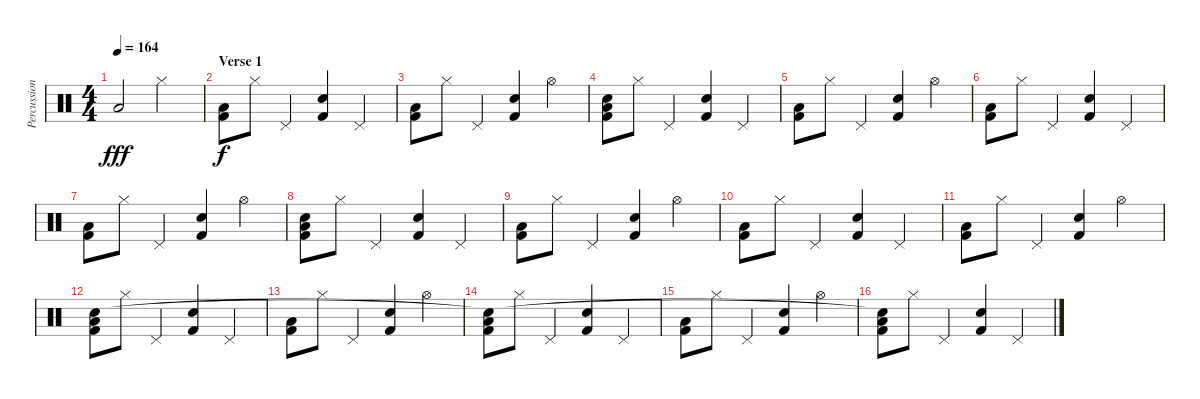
\track ("Percussion" "Percussion") {instrument percussion}
\staff {score}
\articulation defaults
\ts (4 4)
\tempo 164
\clef neutral
\ks c "Low Tom (hit)".2{dy fff} "Hi-Hat (closed)".2
|
\section ("" "Verse 1")
("Low Tom (hit)" "Kick (hit) 2").8{dy f} "Hi-Hat (closed)".8 "Pedal Hi-Hat (hit)".4 ("Snare (hit) 2" "Kick (hit) 2").4 "Pedal Hi-Hat (hit)".4 |
("Low Tom (hit)" "Kick (hit) 2").8 "Hi-Hat (closed)".8 "Pedal Hi-Hat (hit)".4 ("Snare (hit) 2" "Kick (hit) 2").4 "Hi-Hat (open)".4 |
("Low Tom (hit)" "Kick (hit) 2" "Snare (hit)").8 "Hi-Hat (closed)".8 "Pedal Hi-Hat (hit)".4 ("Snare (hit) 2" "Kick (hit) 2").4 "Pedal Hi-Hat (hit)".4 |
("Low Tom (hit)" "Kick (hit) 2").8 "Hi-Hat (closed)".8 "Pedal Hi-Hat (hit)".4 ("Snare (hit) 2" "Kick (hit) 2").4 "Hi-Hat (open)".4 |
("Low Tom (hit)" "Kick (hit) 2").8 "Hi-Hat (closed)".8 "Pedal Hi-Hat (hit)".4 ("Snare (hit) 2" "Kick (hit) 2").4 "Pedal Hi-Hat (hit)".4 |
("Low Tom (hit)" "Kick (hit) 2").8 "Hi-Hat (closed)".8 "Pedal Hi-Hat (hit)".4 ("Snare (hit) 2" "Kick (hit) 2").4 "Hi-Hat (open)".4 |
("Low Tom (hit)" "Kick (hit) 2" "Snare (hit)").8 "Hi-Hat (closed)".8 "Pedal Hi-Hat (hit)".4 ("Snare (hit) 2" "Kick (hit) 2").4 "Pedal Hi-Hat (hit)".4 |
("Low Tom (hit)" "Kick (hit) 2").8 "Hi-Hat (closed)".8 "Pedal Hi-Hat (hit)".4 ("Snare (hit) 2" "Kick (hit) 2").4 "Hi-Hat (open)".4 |
("Low Tom (hit)" "Kick (hit) 2").8 "Hi-Hat (closed)".8 "Pedal Hi-Hat (hit)".4 ("Snare (hit) 2" "Kick (hit) 2").4 "Pedal Hi-Hat (hit)".4 |
("Low Tom (hit)" "Kick (hit) 2").8 "Hi-Hat (closed)".8 "Pedal Hi-Hat (hit)".4 ("Snare (hit) 2" "Kick (hit) 2").4 "Hi-Hat (open)".4 |
("Low Tom (hit)" "Kick (hit) 2" "Snare (hit)").8 "Hi-Hat (closed)".8 "Pedal Hi-Hat (hit)".4 ("Snare (hit) 2" "Kick (hit) 2").4 "Pedal Hi-Hat (hit)".4 |
("Low Tom (hit)" "Kick (hit) 2").8 "Hi-Hat (closed)".8 "Pedal Hi-Hat (hit)".4 ("Snare (hit) 2" "Kick (hit) 2").4 "Hi-Hat (open)".4 |
("Low Tom (hit)" "Kick (hit) 2" "Snare (hit)"{t}).8 "Hi-Hat (closed)".8 "Pedal Hi-Hat (hit)".4 ("Snare (hit) 2" "Kick (hit) 2").4 "Pedal Hi-Hat (hit)".4 |
("Low Tom (hit)" "Kick (hit) 2").8 "Hi-Hat (closed)".8 "Pedal Hi-Hat (hit)".4 ("Snare (hit) 2" "Kick (hit) 2").4 "Hi-Hat (open)".4 |
("Low Tom (hit)" "Kick (hit) 2" "Snare (hit)"{t}).8 "Hi-Hat (closed)".8 "Pedal Hi-Hat (hit)".4 ("Snare (hit) 2" "Kick (hit) 2").4 "Pedal Hi-Hat (hit)".4
